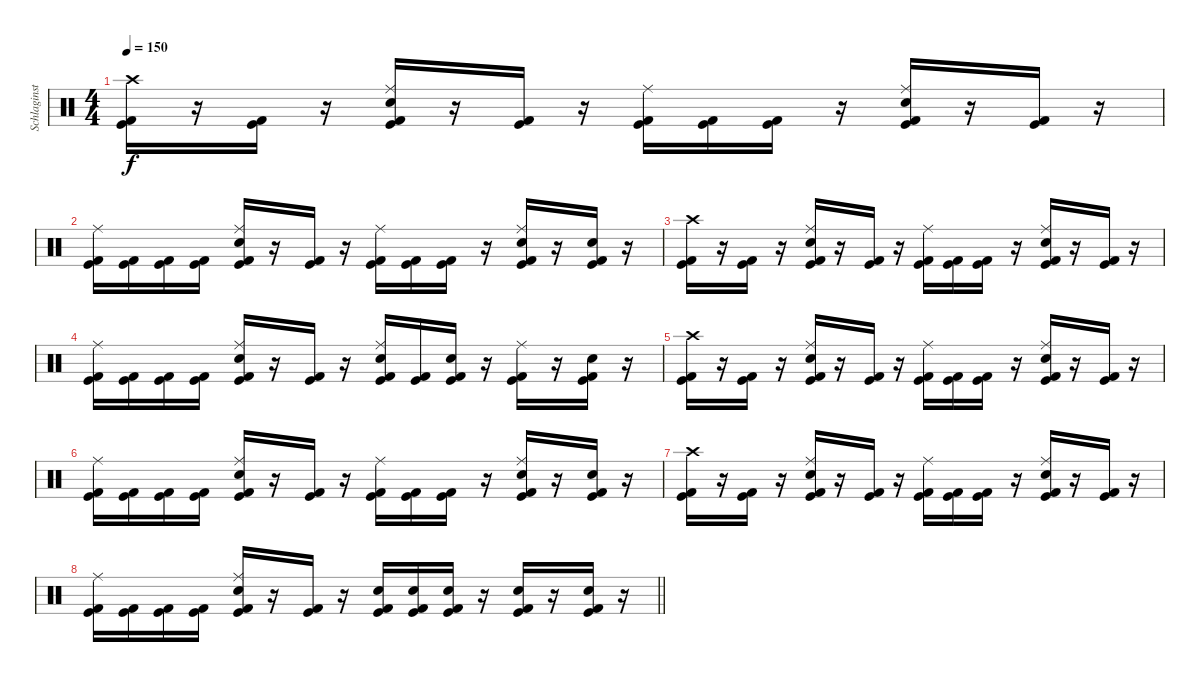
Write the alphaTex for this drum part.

\track ("Schlaginstrumente - Auswahl" "Schlaginst") {instrument percussion}
\staff {score}
\articulation defaults
\ts (4 4)
\tempo 150
\clef neutral
\ks c
("Crash high (hit)" "Kick (hit)" "Kick (hit) 2").16{dy f} r.16 ("Kick (hit)" "Kick (hit) 2").16 r.16 ("Ride (middle)" "Electric Snare (hit)" "Kick (hit)" "Kick (hit) 2").16 r.16 ("Kick (hit)" "Kick (hit) 2").16 r.16 ("Ride (middle)" "Kick (hit)" "Kick (hit) 2").16 ("Kick (hit)" "Kick (hit) 2").16 ("Kick (hit)" "Kick (hit) 2").16 r.16 ("Ride (middle)" "Electric Snare (hit)" "Kick (hit)" "Kick (hit) 2").16 r.16 ("Kick (hit)" "Kick (hit) 2").16 r.16 |
("Ride (middle)" "Kick (hit)" "Kick (hit) 2").16 ("Kick (hit)" "Kick (hit) 2").16 ("Kick (hit)" "Kick (hit) 2").16 ("Kick (hit)" "Kick (hit) 2").16 ("Ride (middle)" "Electric Snare (hit)" "Kick (hit)" "Kick (hit) 2").16 r.16 ("Kick (hit)" "Kick (hit) 2").16 r.16 ("Ride (middle)" "Kick (hit)" "Kick (hit) 2").16 ("Kick (hit)" "Kick (hit) 2").16 ("Kick (hit)" "Kick (hit) 2").16 r.16 ("Ride (middle)" "Electric Snare (hit)" "Kick (hit)" "Kick (hit) 2").16 r.16 ("Electric Snare (hit)" "Kick (hit)" "Kick (hit) 2").16 r.16 |
("Crash high (hit)" "Kick (hit)" "Kick (hit) 2").16 r.16 ("Kick (hit)" "Kick (hit) 2").16 r.16 ("Ride (middle)" "Electric Snare (hit)" "Kick (hit)" "Kick (hit) 2").16 r.16 ("Kick (hit)" "Kick (hit) 2").16 r.16 ("Ride (middle)" "Kick (hit)" "Kick (hit) 2").16 ("Kick (hit)" "Kick (hit) 2").16 ("Kick (hit)" "Kick (hit) 2").16 r.16 ("Ride (middle)" "Electric Snare (hit)" "Kick (hit)" "Kick (hit) 2").16 r.16 ("Kick (hit)" "Kick (hit) 2").16 r.16 |
("Ride (middle)" "Kick (hit)" "Kick (hit) 2").16 ("Kick (hit)" "Kick (hit) 2").16 ("Kick (hit)" "Kick (hit) 2").16 ("Kick (hit)" "Kick (hit) 2").16 ("Ride (middle)" "Electric Snare (hit)" "Kick (hit)" "Kick (hit) 2").16 r.16 ("Kick (hit)" "Kick (hit) 2").16 r.16 ("Ride (middle)" "Electric Snare (hit)" "Kick (hit)" "Kick (hit) 2").16 ("Kick (hit)" "Kick (hit) 2").16 ("Electric Snare (hit)" "Kick (hit)" "Kick (hit) 2").16 r.16 ("Ride (middle)" "Kick (hit)" "Kick (hit) 2").16 r.16 ("Electric Snare (hit)" "Kick (hit)" "Kick (hit) 2").16 r.16 |
("Crash high (hit)" "Kick (hit)" "Kick (hit) 2").16 r.16 ("Kick (hit)" "Kick (hit) 2").16 r.16 ("Ride (middle)" "Electric Snare (hit)" "Kick (hit)" "Kick (hit) 2").16 r.16 ("Kick (hit)" "Kick (hit) 2").16 r.16 ("Ride (middle)" "Kick (hit)" "Kick (hit) 2").16 ("Kick (hit)" "Kick (hit) 2").16 ("Kick (hit)" "Kick (hit) 2").16 r.16 ("Ride (middle)" "Electric Snare (hit)" "Kick (hit)" "Kick (hit) 2").16 r.16 ("Kick (hit)" "Kick (hit) 2").16 r.16 |
("Ride (middle)" "Kick (hit)" "Kick (hit) 2").16 ("Kick (hit)" "Kick (hit) 2").16 ("Kick (hit)" "Kick (hit) 2").16 ("Kick (hit)" "Kick (hit) 2").16 ("Ride (middle)" "Electric Snare (hit)" "Kick (hit)" "Kick (hit) 2").16 r.16 ("Kick (hit)" "Kick (hit) 2").16 r.16 ("Ride (middle)" "Kick (hit)" "Kick (hit) 2").16 ("Kick (hit)" "Kick (hit) 2").16 ("Kick (hit)" "Kick (hit) 2").16 r.16 ("Ride (middle)" "Electric Snare (hit)" "Kick (hit)" "Kick (hit) 2").16 r.16 ("Electric Snare (hit)" "Kick (hit)" "Kick (hit) 2").16 r.16 |
("Crash high (hit)" "Kick (hit)" "Kick (hit) 2").16 r.16 ("Kick (hit)" "Kick (hit) 2").16 r.16 ("Ride (middle)" "Electric Snare (hit)" "Kick (hit)" "Kick (hit) 2").16 r.16 ("Kick (hit)" "Kick (hit) 2").16 r.16 ("Ride (middle)" "Kick (hit)" "Kick (hit) 2").16 ("Kick (hit)" "Kick (hit) 2").16 ("Kick (hit)" "Kick (hit) 2").16 r.16 ("Ride (middle)" "Electric Snare (hit)" "Kick (hit)" "Kick (hit) 2").16 r.16 ("Kick (hit)" "Kick (hit) 2").16 r.16 |
\barLineRight lightlight
("Ride (middle)" "Kick (hit)" "Kick (hit) 2").16 ("Kick (hit)" "Kick (hit) 2").16 ("Kick (hit)" "Kick (hit) 2").16 ("Kick (hit)" "Kick (hit) 2").16 ("Ride (middle)" "Electric Snare (hit)" "Kick (hit)" "Kick (hit) 2").16 r.16 ("Kick (hit)" "Kick (hit) 2").16 r.16 ("Electric Snare (hit)" "Kick (hit)" "Kick (hit) 2").16 ("Electric Snare (hit)" "Kick (hit)" "Kick (hit) 2").16 ("Electric Snare (hit)" "Kick (hit)" "Kick (hit) 2").16 r.16 ("Electric Snare (hit)" "Kick (hit)" "Kick (hit) 2").16 r.16 ("Electric Snare (hit)" "Kick (hit)" "Kick (hit) 2").16 r.16
